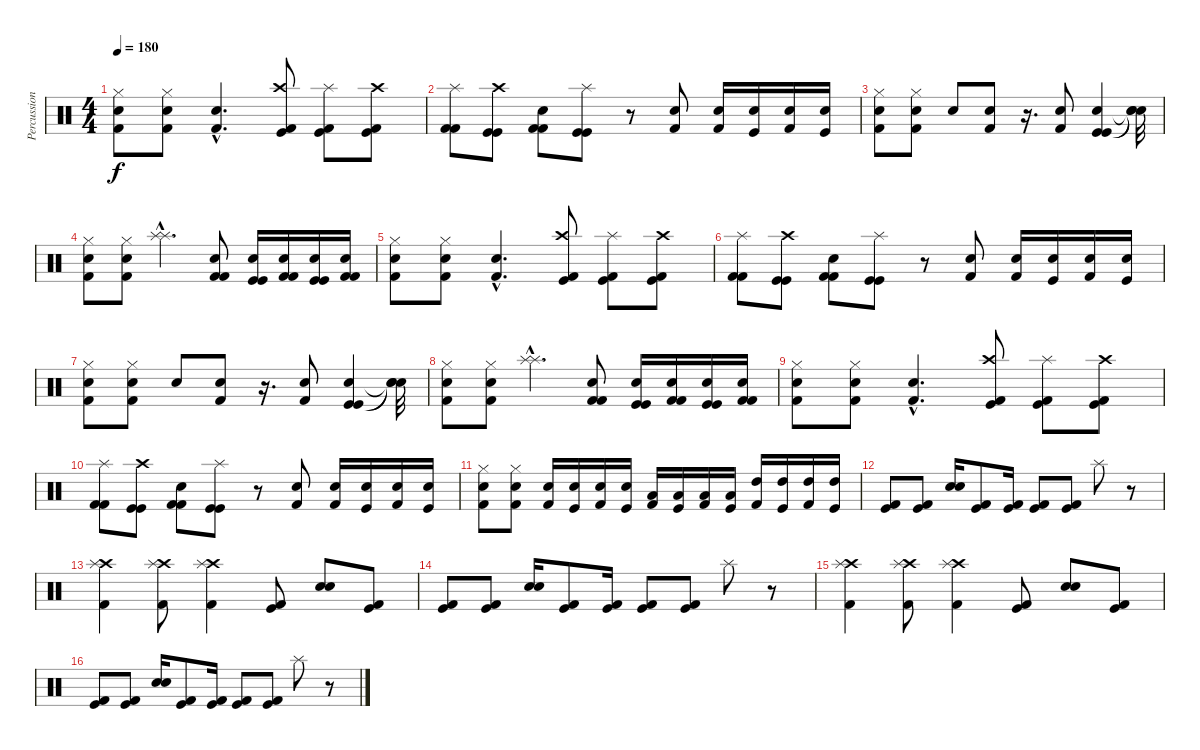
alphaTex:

\track ("Percussion" "Percussion") {instrument percussion}
\staff {score}
\articulation defaults
\ts (4 4)
\tempo 180
\clef neutral
\ks c
("Hi-Hat (closed)" "Electric Snare (hit)" "Kick (hit) 2").8{dy f} ("Hi-Hat (closed)" "Electric Snare (hit)" "Kick (hit) 2").8 ("Electric Snare (hit)"{hac} "Kick (hit) 2"{hac}).4{d} ("Crash high (hit)" "Kick (hit)" "Kick (hit) 2").8 ("Splash (hit)" "Kick (hit)" "Kick (hit) 2").8 ("Crash high (hit)" "Kick (hit)" "Kick (hit) 2").8 |
("Splash (hit)" "Kick (hit) 2" "Kick (hit) 2").8 ("Crash high (hit)" "Kick (hit)" "Kick (hit)").8 ("Electric Snare (hit)" "Kick (hit) 2" "Kick (hit) 2").8 ("Splash (hit)" "Kick (hit)" "Kick (hit)").8 r.8 ("Electric Snare (hit)" "Kick (hit) 2").8 ("Electric Snare (hit)" "Kick (hit) 2").16 ("Electric Snare (hit)" "Kick (hit)").16 ("Electric Snare (hit)" "Kick (hit) 2").16 ("Electric Snare (hit)" "Kick (hit)").16 |
("Hi-Hat (closed)" "Electric Snare (hit)" "Kick (hit) 2").8 ("Hi-Hat (closed)" "Electric Snare (hit)" "Kick (hit) 2").8 "Electric Snare (hit)".8 ("Electric Snare (hit)" "Kick (hit) 2").8 r.16{d} ("Electric Snare (hit)" "Kick (hit) 2").8 ("Kick (hit)" "Electric Snare (hit)" "Kick (hit)").4 ("Snare (hit)"{t} "Snare (hit)"{t} "Snare (hit)"{t}).32 |
("Hi-Hat (closed)" "Electric Snare (hit)" "Kick (hit) 2").8 ("Hi-Hat (closed)" "Electric Snare (hit)" "Kick (hit) 2").8 ("Splash (hit)"{hac} "Splash (hit)"{hac}).4{d} ("Kick (hit) 2" "Electric Snare (hit)" "Kick (hit) 2").8 ("Kick (hit)" "Electric Snare (hit)" "Kick (hit)").16 ("Kick (hit) 2" "Electric Snare (hit)" "Kick (hit) 2").16 ("Kick (hit)" "Electric Snare (hit)" "Kick (hit)").16 ("Kick (hit) 2" "Electric Snare (hit)" "Kick (hit) 2").16 |
("Hi-Hat (closed)" "Electric Snare (hit)" "Kick (hit) 2").8 ("Hi-Hat (closed)" "Electric Snare (hit)" "Kick (hit) 2").8 ("Electric Snare (hit)"{hac} "Kick (hit) 2"{hac}).4{d} ("Crash high (hit)" "Kick (hit)" "Kick (hit) 2").8 ("Splash (hit)" "Kick (hit)" "Kick (hit) 2").8 ("Crash high (hit)" "Kick (hit)" "Kick (hit) 2").8 |
("Splash (hit)" "Kick (hit) 2" "Kick (hit) 2").8 ("Crash high (hit)" "Kick (hit)" "Kick (hit)").8 ("Electric Snare (hit)" "Kick (hit) 2" "Kick (hit) 2").8 ("Splash (hit)" "Kick (hit)" "Kick (hit)").8 r.8 ("Electric Snare (hit)" "Kick (hit) 2").8 ("Electric Snare (hit)" "Kick (hit) 2").16 ("Electric Snare (hit)" "Kick (hit)").16 ("Electric Snare (hit)" "Kick (hit) 2").16 ("Electric Snare (hit)" "Kick (hit)").16 |
("Hi-Hat (closed)" "Electric Snare (hit)" "Kick (hit) 2").8 ("Hi-Hat (closed)" "Electric Snare (hit)" "Kick (hit) 2").8 "Electric Snare (hit)".8 ("Electric Snare (hit)" "Kick (hit) 2").8 r.16{d} ("Electric Snare (hit)" "Kick (hit) 2").8 ("Kick (hit)" "Electric Snare (hit)" "Kick (hit)").4 ("Snare (hit)"{t} "Snare (hit)"{t} "Snare (hit)"{t}).32 |
("Hi-Hat (closed)" "Electric Snare (hit)" "Kick (hit) 2").8 ("Hi-Hat (closed)" "Electric Snare (hit)" "Kick (hit) 2").8 ("Splash (hit)"{hac} "Splash (hit)"{hac}).4{d} ("Kick (hit) 2" "Electric Snare (hit)" "Kick (hit) 2").8 ("Kick (hit)" "Electric Snare (hit)" "Kick (hit)").16 ("Kick (hit) 2" "Electric Snare (hit)" "Kick (hit) 2").16 ("Kick (hit)" "Electric Snare (hit)" "Kick (hit)").16 ("Kick (hit) 2" "Electric Snare (hit)" "Kick (hit) 2").16 |
("Hi-Hat (closed)" "Electric Snare (hit)" "Kick (hit) 2").8 ("Hi-Hat (closed)" "Electric Snare (hit)" "Kick (hit) 2").8 ("Electric Snare (hit)"{hac} "Kick (hit) 2"{hac}).4{d} ("Crash high (hit)" "Kick (hit)" "Kick (hit) 2").8 ("Splash (hit)" "Kick (hit)" "Kick (hit) 2").8 ("Crash high (hit)" "Kick (hit)" "Kick (hit) 2").8 |
("Splash (hit)" "Kick (hit) 2" "Kick (hit) 2").8 ("Crash high (hit)" "Kick (hit)" "Kick (hit)").8 ("Electric Snare (hit)" "Kick (hit) 2" "Kick (hit) 2").8 ("Splash (hit)" "Kick (hit)" "Kick (hit)").8 r.8 ("Electric Snare (hit)" "Kick (hit) 2").8 ("Electric Snare (hit)" "Kick (hit) 2").16 ("Electric Snare (hit)" "Kick (hit)").16 ("Electric Snare (hit)" "Kick (hit) 2").16 ("Electric Snare (hit)" "Kick (hit)").16 |
("Hi-Hat (closed)" "Electric Snare (hit)" "Kick (hit) 2").8 ("Hi-Hat (closed)" "Electric Snare (hit)" "Kick (hit) 2").8 ("Electric Snare (hit)" "Kick (hit) 2").16 ("Electric Snare (hit)" "Kick (hit)").16 ("Electric Snare (hit)" "Kick (hit) 2").16 ("Electric Snare (hit)" "Kick (hit)").16 ("Low Tom (hit)" "Kick (hit) 2").16 ("Low Tom (hit)" "Kick (hit)").16 ("Low Tom (hit)" "Kick (hit) 2").16 ("Low Tom (hit)" "Kick (hit)").16 ("High Tom (hit)" "Kick (hit) 2").16 ("High Tom (hit)" "Kick (hit)").16 ("High Tom (hit)" "Kick (hit) 2").16 ("High Tom (hit)" "Kick (hit)").16 |
("Kick (hit)" "Kick (hit) 2").8 ("Kick (hit)" "Kick (hit) 2").8 ("Electric Snare (hit)" "Electric Snare (hit)").16 ("Kick (hit)" "Kick (hit) 2").8 ("Kick (hit)" "Kick (hit) 2").16 ("Kick (hit)" "Kick (hit) 2").8 ("Kick (hit)" "Kick (hit) 2").8 "Splash (hit)".8 r.8 |
("Kick (hit) 2" "Crash high (hit)" "Splash (hit)").4 ("Kick (hit) 2" "Crash high (hit)" "Splash (hit)").8 ("Crash high (hit)" "Splash (hit)" "Kick (hit) 2").4 ("Kick (hit)" "Kick (hit) 2").8 ("Electric Snare (hit)" "Electric Snare (hit)").8 ("Kick (hit)" "Kick (hit) 2").8 |
("Kick (hit)" "Kick (hit) 2").8 ("Kick (hit)" "Kick (hit) 2").8 ("Electric Snare (hit)" "Electric Snare (hit)").16 ("Kick (hit)" "Kick (hit) 2").8 ("Kick (hit)" "Kick (hit) 2").16 ("Kick (hit)" "Kick (hit) 2").8 ("Kick (hit)" "Kick (hit) 2").8 "Splash (hit)".8 r.8 |
("Kick (hit) 2" "Crash high (hit)" "Splash (hit)").4 ("Kick (hit) 2" "Crash high (hit)" "Splash (hit)").8 ("Crash high (hit)" "Splash (hit)" "Kick (hit) 2").4 ("Kick (hit)" "Kick (hit) 2").8 ("Electric Snare (hit)" "Electric Snare (hit)").8 ("Kick (hit)" "Kick (hit) 2").8 |
("Kick (hit)" "Kick (hit) 2").8 ("Kick (hit)" "Kick (hit) 2").8 ("Electric Snare (hit)" "Electric Snare (hit)").16 ("Kick (hit)" "Kick (hit) 2").8 ("Kick (hit)" "Kick (hit) 2").16 ("Kick (hit)" "Kick (hit) 2").8 ("Kick (hit)" "Kick (hit) 2").8 "Splash (hit)".8 r.8
